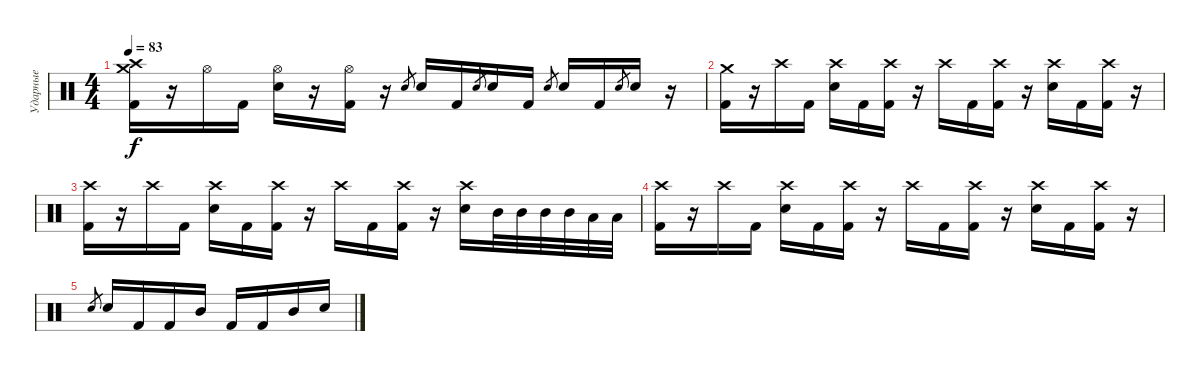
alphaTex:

\track ("Ударные" "Ударные") {instrument percussion}
\staff {score}
\articulation defaults
\ts (4 4)
\tempo 83
\clef neutral
\ks c
("Crash medium (hit)" "Crash high (hit)" "Kick (hit) 2").16{dy f} r.16 "Hi-Hat (open)".16 "Kick (hit) 2".16 ("Hi-Hat (open)" "Electric Snare (hit)").16 r.16 ("Hi-Hat (open)" "Kick (hit) 2").16 r.16 "Electric Snare (hit)".8{gr} "Electric Snare (hit)".16 "Kick (hit) 2".16 "Electric Snare (hit)".8{gr} "Electric Snare (hit)".16 "Kick (hit) 2".16 "Electric Snare (hit)".8{gr} "Electric Snare (hit)".16 "Kick (hit) 2".16 "Electric Snare (hit)".8{gr} "Electric Snare (hit)".16 r.16 |
("Crash medium (hit)" "Kick (hit) 2").16 r.16 "Crash high (hit)".16 "Kick (hit) 2".16 ("Crash high (hit)" "Electric Snare (hit)").16 "Kick (hit) 2".16 ("Crash high (hit)" "Kick (hit) 2").16 r.16 "Crash high (hit)".16 "Kick (hit) 2".16 ("Crash high (hit)" "Kick (hit) 2").16 r.16 ("Crash high (hit)" "Electric Snare (hit)").16 "Kick (hit) 2".16 ("Crash high (hit)" "Kick (hit) 2").16 r.16 |
("Crash high (hit)" "Kick (hit) 2").16 r.16 "Crash high (hit)".16 "Kick (hit) 2".16 ("Crash high (hit)" "Electric Snare (hit)").16 "Kick (hit) 2".16 ("Crash high (hit)" "Kick (hit) 2").16 r.16 "Crash high (hit)".16 "Kick (hit) 2".16 ("Crash high (hit)" "Kick (hit) 2").16 r.16 ("Crash high (hit)" "Electric Snare (hit)").16 "Mid Tom (hit)".32 "Mid Tom (hit)".32 "Mid Tom (hit)".32 "Mid Tom (hit)".32 "Low Tom (hit)".32 "Low Tom (hit)".32 |
("Crash high (hit)" "Kick (hit) 2").16 r.16 "Crash high (hit)".16 "Kick (hit) 2".16 ("Crash high (hit)" "Electric Snare (hit)").16 "Kick (hit) 2".16 ("Crash high (hit)" "Kick (hit) 2").16 r.16 "Crash high (hit)".16 "Kick (hit) 2".16 ("Crash high (hit)" "Kick (hit) 2").16 r.16 ("Crash high (hit)" "Electric Snare (hit)").16 "Kick (hit) 2".16 ("Crash high (hit)" "Kick (hit) 2").16 r.16 |
"Electric Snare (hit)".8{gr} "Electric Snare (hit)".16 "Kick (hit) 2".16 "Kick (hit) 2".16 "Mid Tom (hit)".16 "Kick (hit) 2".16 "Kick (hit) 2".16 "Mid Tom (hit)".16 "Electric Snare (hit)".16
